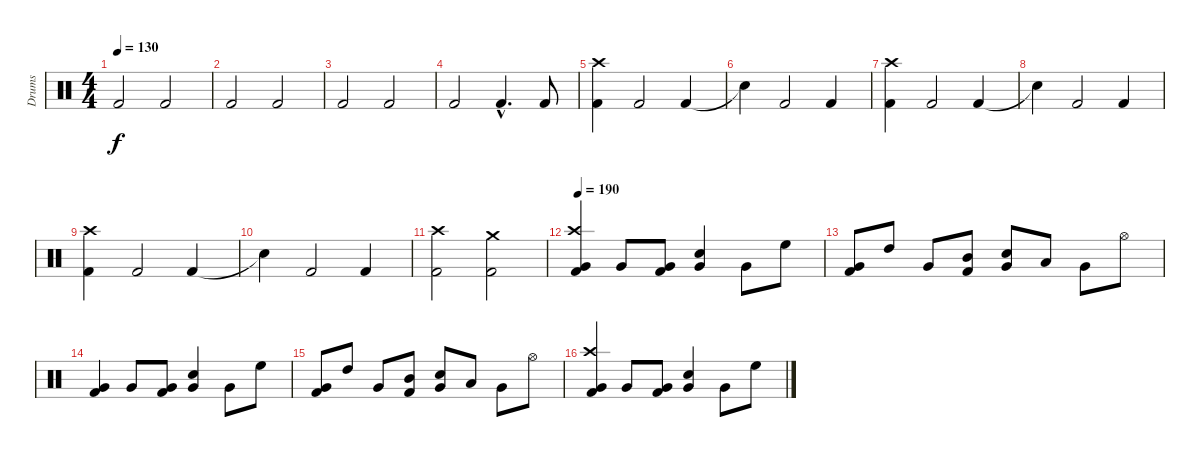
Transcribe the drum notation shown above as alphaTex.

\track ("Drums" "Drums") {instrument percussion}
\staff {score}
\articulation defaults
\ts (4 4)
\tempo 130
\clef neutral
\ks c "Kick (hit) 2".2{dy f} "Kick (hit) 2".2
|
"Kick (hit) 2".2 "Kick (hit) 2".2 |
"Kick (hit) 2".2 "Kick (hit) 2".2 |
"Kick (hit) 2".2 "Kick (hit) 2"{hac}.4{d} "Kick (hit) 2".8 |
("Crash high (hit)" "Kick (hit) 2").4 "Kick (hit) 2".2 "Kick (hit) 2".4 |
"Snare (hit)"{t}.4 "Kick (hit) 2".2 "Kick (hit) 2".4 |
("Crash high (hit)" "Kick (hit) 2").4 "Kick (hit) 2".2 "Kick (hit) 2".4 |
"Snare (hit)"{t}.4 "Kick (hit) 2".2 "Kick (hit) 2".4 |
("Crash high (hit)" "Kick (hit) 2").4 "Kick (hit) 2".2 "Kick (hit) 2".4 |
"Snare (hit)"{t}.4 "Kick (hit) 2".2 "Kick (hit) 2".4 |
("Crash high (hit)" "Kick (hit) 2").2 ("Crash medium (hit)" "Kick (hit) 2").2 |
\tempo 190
("Crash high (hit)" "Very Low Tom (hit)" "Kick (hit) 2").4 "Very Low Tom (hit)".8 ("Very Low Tom (hit)" "Kick (hit) 2").8 ("Very Low Tom (hit)" "Electric Snare (hit)").4 "Very Low Tom (hit)".8 "High Floor Tom (hit)".8 |
("Very Low Tom (hit)" "Kick (hit) 2").8 "High Tom (hit)".8 "Very Low Tom (hit)".8 ("Mid Tom (hit)" "Kick (hit) 2").8 ("Very Low Tom (hit)" "Electric Snare (hit)").8 "Low Tom (hit)".8 "Very Low Tom (hit)".8 "Hi-Hat (open)".8 |
("Very Low Tom (hit)" "Kick (hit) 2").4 "Very Low Tom (hit)".8 ("Very Low Tom (hit)" "Kick (hit) 2").8 ("Very Low Tom (hit)" "Electric Snare (hit)").4 "Very Low Tom (hit)".8 "High Floor Tom (hit)".8 |
("Very Low Tom (hit)" "Kick (hit) 2").8 "High Tom (hit)".8 "Very Low Tom (hit)".8 ("Mid Tom (hit)" "Kick (hit) 2").8 ("Very Low Tom (hit)" "Electric Snare (hit)").8 "Low Tom (hit)".8 "Very Low Tom (hit)".8 "Hi-Hat (open)".8 |
("Crash high (hit)" "Very Low Tom (hit)" "Kick (hit) 2").4 "Very Low Tom (hit)".8 ("Very Low Tom (hit)" "Kick (hit) 2").8 ("Very Low Tom (hit)" "Electric Snare (hit)").4 "Very Low Tom (hit)".8 "High Floor Tom (hit)".8
